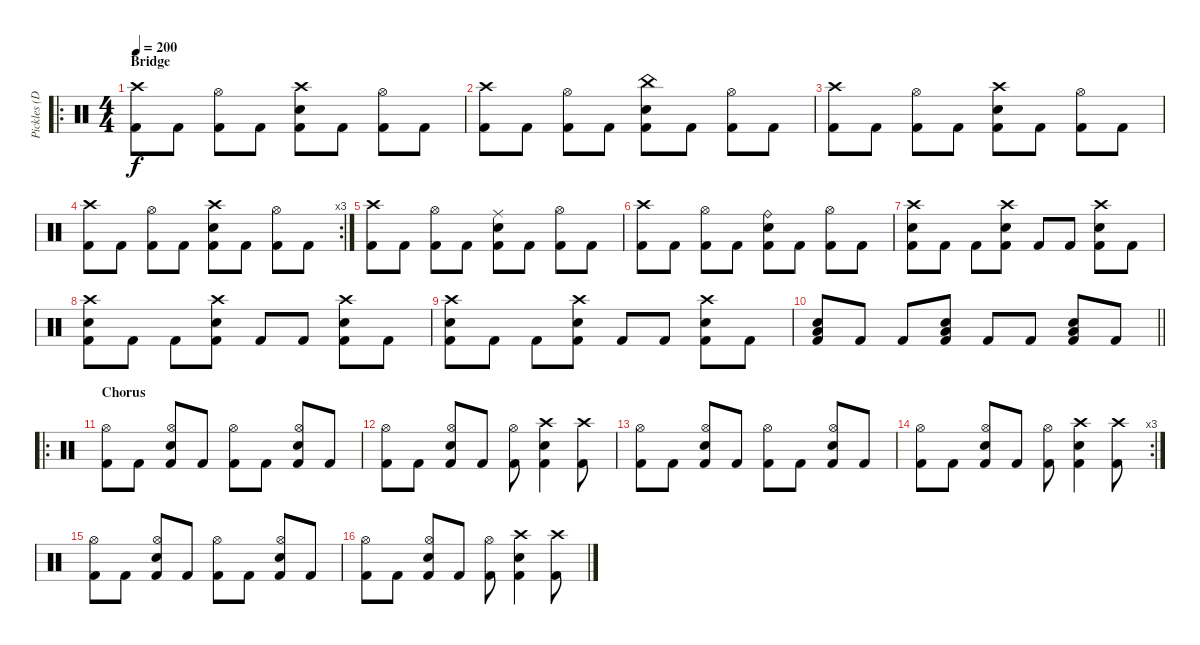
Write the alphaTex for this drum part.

\track ("Pickles (Drums)" "Pickles (D") {instrument percussion}
\staff {score}
\articulation defaults
\ro
\ts (4 4)
\section ("" "Bridge")
\tempo 200
\clef neutral
\ks c
("Crash high (hit)" "Kick (hit) 2").8{dy f} "Kick (hit) 2".8 ("Hi-Hat (open)" "Kick (hit) 2").8 "Kick (hit) 2".8 ("Crash high (hit)" "Electric Snare (hit)" "Kick (hit) 2").8 "Kick (hit) 2".8 ("Hi-Hat (open)" "Kick (hit) 2").8 "Kick (hit) 2".8 |
("Crash high (hit)" "Kick (hit) 2").8 "Kick (hit) 2".8 ("Hi-Hat (open)" "Kick (hit) 2").8 "Kick (hit) 2".8 ("China (hit)" "Electric Snare (hit)" "Kick (hit) 2").8 "Kick (hit) 2".8 ("Hi-Hat (open)" "Kick (hit) 2").8 "Kick (hit) 2".8 |
("Crash high (hit)" "Kick (hit) 2").8 "Kick (hit) 2".8 ("Hi-Hat (open)" "Kick (hit) 2").8 "Kick (hit) 2".8 ("Crash high (hit)" "Electric Snare (hit)" "Kick (hit) 2").8 "Kick (hit) 2".8 ("Hi-Hat (open)" "Kick (hit) 2").8 "Kick (hit) 2".8 |
\rc 3
("Crash high (hit)" "Kick (hit) 2").8 "Kick (hit) 2".8 ("Hi-Hat (open)" "Kick (hit) 2").8 "Kick (hit) 2".8 ("Crash high (hit)" "Electric Snare (hit)" "Kick (hit) 2").8 "Kick (hit) 2".8 ("Hi-Hat (open)" "Kick (hit) 2").8 "Kick (hit) 2".8 |
("Crash high (hit)" "Kick (hit) 2").8 "Kick (hit) 2".8 ("Hi-Hat (open)" "Kick (hit) 2").8 "Kick (hit) 2".8 ("Ride (middle)" "Electric Snare (hit)" "Kick (hit) 2").8 "Kick (hit) 2".8 ("Hi-Hat (open)" "Kick (hit) 2").8 "Kick (hit) 2".8 |
("Crash high (hit)" "Kick (hit) 2").8 "Kick (hit) 2".8 ("Hi-Hat (open)" "Kick (hit) 2").8 "Kick (hit) 2".8 ("Ride (bell)" "Electric Snare (hit)" "Kick (hit) 2").8 "Kick (hit) 2".8 ("Hi-Hat (open)" "Kick (hit) 2").8 "Kick (hit) 2".8 |
("Crash high (hit)" "Electric Snare (hit)" "Kick (hit) 2").8 "Kick (hit) 2".8 "Kick (hit) 2".8 ("Crash high (hit)" "Electric Snare (hit)" "Kick (hit) 2").8 "Kick (hit) 2".8 "Kick (hit) 2".8 ("Crash high (hit)" "Electric Snare (hit)" "Kick (hit) 2").8 "Kick (hit) 2".8 |
("Crash high (hit)" "Electric Snare (hit)" "Kick (hit) 2").8 "Kick (hit) 2".8 "Kick (hit) 2".8 ("Crash high (hit)" "Electric Snare (hit)" "Kick (hit) 2").8 "Kick (hit) 2".8 "Kick (hit) 2".8 ("Crash high (hit)" "Electric Snare (hit)" "Kick (hit) 2").8 "Kick (hit) 2".8 |
("Crash high (hit)" "Electric Snare (hit)" "Kick (hit) 2").8 "Kick (hit) 2".8 "Kick (hit) 2".8 ("Crash high (hit)" "Electric Snare (hit)" "Kick (hit) 2").8 "Kick (hit) 2".8 "Kick (hit) 2".8 ("Crash high (hit)" "Electric Snare (hit)" "Kick (hit) 2").8 "Kick (hit) 2".8 |
\barLineRight lightlight
("Low Floor Tom (hit)" "Electric Snare (hit)" "Kick (hit) 2").8 "Kick (hit) 2".8 "Kick (hit) 2".8 ("Low Floor Tom (hit)" "Electric Snare (hit)" "Kick (hit) 2").8 "Kick (hit) 2".8 "Kick (hit) 2".8 ("Low Floor Tom (hit)" "Electric Snare (hit)" "Kick (hit) 2").8 "Kick (hit) 2".8 |
\ro
\section ("" "Chorus")
("Hi-Hat (open)" "Kick (hit) 2").8 "Kick (hit) 2".8 ("Hi-Hat (open)" "Electric Snare (hit)" "Kick (hit) 2").8 "Kick (hit) 2".8 ("Hi-Hat (open)" "Kick (hit) 2").8 "Kick (hit) 2".8 ("Hi-Hat (open)" "Electric Snare (hit)" "Kick (hit) 2").8 "Kick (hit) 2".8 |
("Hi-Hat (open)" "Kick (hit) 2").8 "Kick (hit) 2".8 ("Hi-Hat (open)" "Electric Snare (hit)" "Kick (hit) 2").8 "Kick (hit) 2".8 ("Hi-Hat (open)" "Kick (hit) 2").8 ("Crash high (hit)" "Electric Snare (hit)" "Kick (hit) 2").4 ("Crash high (hit)" "Kick (hit) 2").8 |
("Hi-Hat (open)" "Kick (hit) 2").8 "Kick (hit) 2".8 ("Hi-Hat (open)" "Electric Snare (hit)" "Kick (hit) 2").8 "Kick (hit) 2".8 ("Hi-Hat (open)" "Kick (hit) 2").8 "Kick (hit) 2".8 ("Hi-Hat (open)" "Electric Snare (hit)" "Kick (hit) 2").8 "Kick (hit) 2".8 |
\rc 3
("Hi-Hat (open)" "Kick (hit) 2").8 "Kick (hit) 2".8 ("Hi-Hat (open)" "Electric Snare (hit)" "Kick (hit) 2").8 "Kick (hit) 2".8 ("Hi-Hat (open)" "Kick (hit) 2").8 ("Crash high (hit)" "Electric Snare (hit)" "Kick (hit) 2").4 ("Crash high (hit)" "Kick (hit) 2").8 |
("Hi-Hat (open)" "Kick (hit) 2").8 "Kick (hit) 2".8 ("Hi-Hat (open)" "Electric Snare (hit)" "Kick (hit) 2").8 "Kick (hit) 2".8 ("Hi-Hat (open)" "Kick (hit) 2").8 "Kick (hit) 2".8 ("Hi-Hat (open)" "Electric Snare (hit)" "Kick (hit) 2").8 "Kick (hit) 2".8 |
("Hi-Hat (open)" "Kick (hit) 2").8 "Kick (hit) 2".8 ("Hi-Hat (open)" "Electric Snare (hit)" "Kick (hit) 2").8 "Kick (hit) 2".8 ("Hi-Hat (open)" "Kick (hit) 2").8 ("Crash high (hit)" "Electric Snare (hit)" "Kick (hit) 2").4 ("Crash high (hit)" "Kick (hit) 2").8
